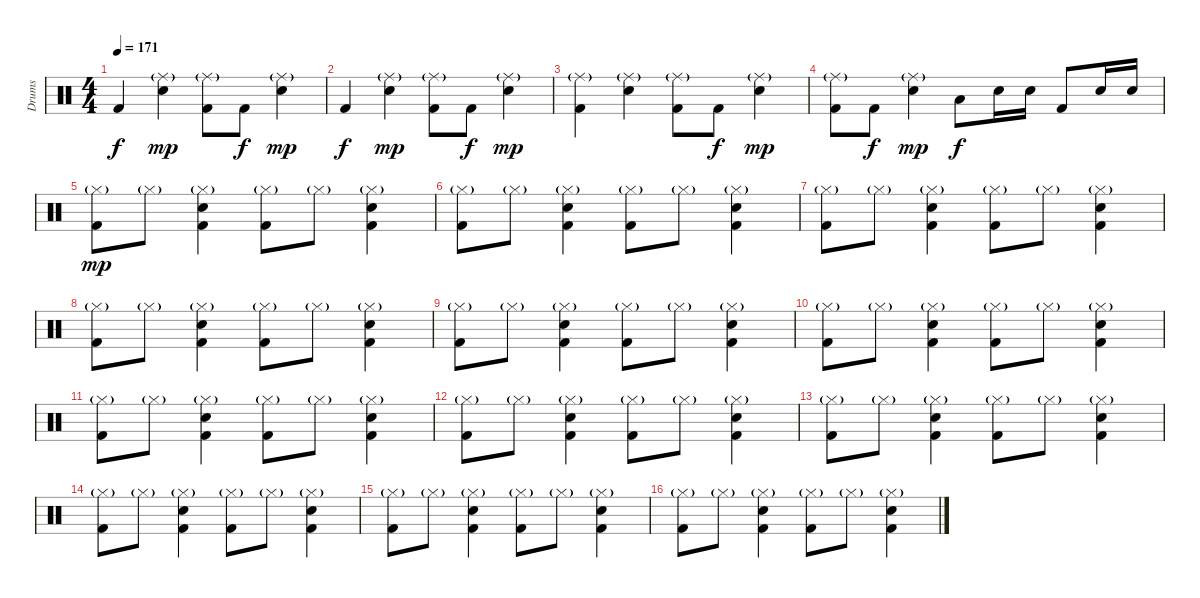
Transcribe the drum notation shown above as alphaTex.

\track ("Drums" "Drums") {instrument percussion}
\staff {score}
\articulation defaults
\ts (4 4)
\tempo 171
\clef neutral
\ks c "Kick (hit) 2".4{dy f}
("Ride (middle)"{g} "Electric Snare (hit)").4{dy mp} ("Ride (middle)"{g} "Kick (hit) 2").8 "Kick (hit) 2".8{dy f} ("Ride (middle)"{g} "Electric Snare (hit)").4{dy mp} |
"Kick (hit) 2".4{dy f} ("Ride (middle)"{g} "Electric Snare (hit)").4{dy mp} ("Ride (middle)"{g} "Kick (hit) 2").8 "Kick (hit) 2".8{dy f} ("Ride (middle)"{g} "Electric Snare (hit)").4{dy mp} |
("Ride (middle)"{g} "Kick (hit) 2").4 ("Ride (middle)"{g} "Electric Snare (hit)").4 ("Ride (middle)"{g} "Kick (hit) 2").8 "Kick (hit) 2".8{dy f} ("Ride (middle)"{g} "Electric Snare (hit)").4{dy mp} |
("Ride (middle)"{g} "Kick (hit) 2").8 "Kick (hit) 2".8{dy f} ("Ride (middle)"{g} "Electric Snare (hit)").4{dy mp} "Low Floor Tom (hit)".8{dy f} "Electric Snare (hit)".16 "Electric Snare (hit)".16 "Kick (hit) 2".8 "Electric Snare (hit)".16 "Electric Snare (hit)".16 |
("Hi-Hat (closed)"{g} "Kick (hit) 2").8{dy mp} "Hi-Hat (closed)"{g}.8 ("Hi-Hat (closed)"{g} "Electric Snare (hit)" "Kick (hit) 2").4 ("Hi-Hat (closed)"{g} "Kick (hit) 2").8 "Hi-Hat (closed)"{g}.8 ("Hi-Hat (closed)"{g} "Electric Snare (hit)" "Kick (hit) 2").4 |
("Hi-Hat (closed)"{g} "Kick (hit) 2").8 "Hi-Hat (closed)"{g}.8 ("Hi-Hat (closed)"{g} "Electric Snare (hit)" "Kick (hit) 2").4 ("Hi-Hat (closed)"{g} "Kick (hit) 2").8 "Hi-Hat (closed)"{g}.8 ("Hi-Hat (closed)"{g} "Electric Snare (hit)" "Kick (hit) 2").4 |
("Hi-Hat (closed)"{g} "Kick (hit) 2").8 "Hi-Hat (closed)"{g}.8 ("Hi-Hat (closed)"{g} "Electric Snare (hit)" "Kick (hit) 2").4 ("Hi-Hat (closed)"{g} "Kick (hit) 2").8 "Hi-Hat (closed)"{g}.8 ("Hi-Hat (closed)"{g} "Electric Snare (hit)" "Kick (hit) 2").4 |
("Hi-Hat (closed)"{g} "Kick (hit) 2").8 "Hi-Hat (closed)"{g}.8 ("Hi-Hat (closed)"{g} "Electric Snare (hit)" "Kick (hit) 2").4 ("Hi-Hat (closed)"{g} "Kick (hit) 2").8 "Hi-Hat (closed)"{g}.8 ("Hi-Hat (closed)"{g} "Electric Snare (hit)" "Kick (hit) 2").4 |
("Hi-Hat (closed)"{g} "Kick (hit) 2").8 "Hi-Hat (closed)"{g}.8 ("Hi-Hat (closed)"{g} "Electric Snare (hit)" "Kick (hit) 2").4 ("Hi-Hat (closed)"{g} "Kick (hit) 2").8 "Hi-Hat (closed)"{g}.8 ("Hi-Hat (closed)"{g} "Electric Snare (hit)" "Kick (hit) 2").4 |
("Hi-Hat (closed)"{g} "Kick (hit) 2").8 "Hi-Hat (closed)"{g}.8 ("Hi-Hat (closed)"{g} "Electric Snare (hit)" "Kick (hit) 2").4 ("Hi-Hat (closed)"{g} "Kick (hit) 2").8 "Hi-Hat (closed)"{g}.8 ("Hi-Hat (closed)"{g} "Electric Snare (hit)" "Kick (hit) 2").4 |
("Hi-Hat (closed)"{g} "Kick (hit) 2").8 "Hi-Hat (closed)"{g}.8 ("Hi-Hat (closed)"{g} "Electric Snare (hit)" "Kick (hit) 2").4 ("Hi-Hat (closed)"{g} "Kick (hit) 2").8 "Hi-Hat (closed)"{g}.8 ("Hi-Hat (closed)"{g} "Electric Snare (hit)" "Kick (hit) 2").4 |
("Hi-Hat (closed)"{g} "Kick (hit) 2").8 "Hi-Hat (closed)"{g}.8 ("Hi-Hat (closed)"{g} "Electric Snare (hit)" "Kick (hit) 2").4 ("Hi-Hat (closed)"{g} "Kick (hit) 2").8 "Hi-Hat (closed)"{g}.8 ("Hi-Hat (closed)"{g} "Electric Snare (hit)" "Kick (hit) 2").4 |
("Hi-Hat (closed)"{g} "Kick (hit) 2").8 "Hi-Hat (closed)"{g}.8 ("Hi-Hat (closed)"{g} "Electric Snare (hit)" "Kick (hit) 2").4 ("Hi-Hat (closed)"{g} "Kick (hit) 2").8 "Hi-Hat (closed)"{g}.8 ("Hi-Hat (closed)"{g} "Electric Snare (hit)" "Kick (hit) 2").4 |
("Hi-Hat (closed)"{g} "Kick (hit) 2").8 "Hi-Hat (closed)"{g}.8 ("Hi-Hat (closed)"{g} "Electric Snare (hit)" "Kick (hit) 2").4 ("Hi-Hat (closed)"{g} "Kick (hit) 2").8 "Hi-Hat (closed)"{g}.8 ("Hi-Hat (closed)"{g} "Electric Snare (hit)" "Kick (hit) 2").4 |
("Hi-Hat (closed)"{g} "Kick (hit) 2").8 "Hi-Hat (closed)"{g}.8 ("Hi-Hat (closed)"{g} "Electric Snare (hit)" "Kick (hit) 2").4 ("Hi-Hat (closed)"{g} "Kick (hit) 2").8 "Hi-Hat (closed)"{g}.8 ("Hi-Hat (closed)"{g} "Electric Snare (hit)" "Kick (hit) 2").4 |
("Hi-Hat (closed)"{g} "Kick (hit) 2").8 "Hi-Hat (closed)"{g}.8 ("Hi-Hat (closed)"{g} "Electric Snare (hit)" "Kick (hit) 2").4 ("Hi-Hat (closed)"{g} "Kick (hit) 2").8 "Hi-Hat (closed)"{g}.8 ("Hi-Hat (closed)"{g} "Electric Snare (hit)" "Kick (hit) 2").4
